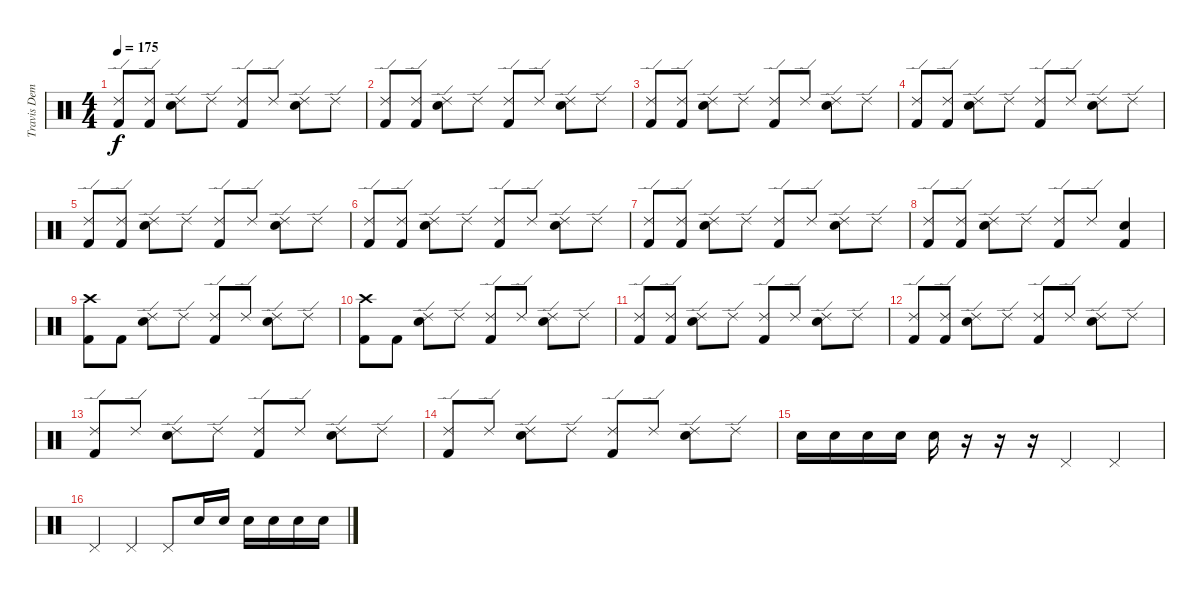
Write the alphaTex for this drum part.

\track ("Travis Dempsey" "Travis Dem") {instrument percussion}
\staff {score}
\articulation defaults
\ts (4 4)
\tempo 175
\clef neutral
\ks c
("Ride (edge) 2" "Kick (hit) 2").8{dy f} ("Ride (edge) 2" "Kick (hit) 2").8 ("Ride (edge) 2" "Electric Snare (hit)").8 "Ride (edge) 2".8 ("Ride (edge) 2" "Kick (hit) 2").8 "Ride (edge) 2".8 ("Ride (edge) 2" "Electric Snare (hit)").8 "Ride (edge) 2".8 |
("Ride (edge) 2" "Kick (hit) 2").8 ("Ride (edge) 2" "Kick (hit) 2").8 ("Ride (edge) 2" "Electric Snare (hit)").8 "Ride (edge) 2".8 ("Ride (edge) 2" "Kick (hit) 2").8 "Ride (edge) 2".8 ("Ride (edge) 2" "Electric Snare (hit)").8 "Ride (edge) 2".8 |
("Ride (edge) 2" "Kick (hit) 2").8 ("Ride (edge) 2" "Kick (hit) 2").8 ("Ride (edge) 2" "Electric Snare (hit)").8 "Ride (edge) 2".8 ("Ride (edge) 2" "Kick (hit) 2").8 "Ride (edge) 2".8 ("Ride (edge) 2" "Electric Snare (hit)").8 "Ride (edge) 2".8 |
("Ride (edge) 2" "Kick (hit) 2").8 ("Ride (edge) 2" "Kick (hit) 2").8 ("Ride (edge) 2" "Electric Snare (hit)").8 "Ride (edge) 2".8 ("Ride (edge) 2" "Kick (hit) 2").8 "Ride (edge) 2".8 ("Ride (edge) 2" "Electric Snare (hit)").8 "Ride (edge) 2".8 |
("Ride (edge) 2" "Kick (hit) 2").8 ("Ride (edge) 2" "Kick (hit) 2").8 ("Ride (edge) 2" "Electric Snare (hit)").8 "Ride (edge) 2".8 ("Ride (edge) 2" "Kick (hit) 2").8 "Ride (edge) 2".8 ("Ride (edge) 2" "Electric Snare (hit)").8 "Ride (edge) 2".8 |
("Ride (edge) 2" "Kick (hit) 2").8 ("Ride (edge) 2" "Kick (hit) 2").8 ("Ride (edge) 2" "Electric Snare (hit)").8 "Ride (edge) 2".8 ("Ride (edge) 2" "Kick (hit) 2").8 "Ride (edge) 2".8 ("Ride (edge) 2" "Electric Snare (hit)").8 "Ride (edge) 2".8 |
("Ride (edge) 2" "Kick (hit) 2").8 ("Ride (edge) 2" "Kick (hit) 2").8 ("Ride (edge) 2" "Electric Snare (hit)").8 "Ride (edge) 2".8 ("Ride (edge) 2" "Kick (hit) 2").8 "Ride (edge) 2".8 ("Ride (edge) 2" "Electric Snare (hit)").8 "Ride (edge) 2".8 |
("Ride (edge) 2" "Kick (hit) 2").8 ("Ride (edge) 2" "Kick (hit) 2").8 ("Ride (edge) 2" "Electric Snare (hit)").8 "Ride (edge) 2".8 ("Ride (edge) 2" "Kick (hit) 2").8 "Ride (edge) 2".8 ("Electric Snare (hit)" "Kick (hit) 2").4 |
("Crash high (hit)" "Kick (hit) 2").8 "Kick (hit) 2".8 ("Ride (edge) 2" "Electric Snare (hit)").8 "Ride (edge) 2".8 ("Ride (edge) 2" "Kick (hit) 2").8 "Ride (edge) 2".8 ("Ride (edge) 2" "Electric Snare (hit)").8 "Ride (edge) 2".8 |
("Crash high (hit)" "Kick (hit) 2").8 "Kick (hit) 2".8 ("Ride (edge) 2" "Electric Snare (hit)").8 "Ride (edge) 2".8 ("Ride (edge) 2" "Kick (hit) 2").8 "Ride (edge) 2".8 ("Ride (edge) 2" "Electric Snare (hit)").8 "Ride (edge) 2".8 |
("Ride (edge) 2" "Kick (hit) 2").8 ("Ride (edge) 2" "Kick (hit) 2").8 ("Ride (edge) 2" "Electric Snare (hit)").8 "Ride (edge) 2".8 ("Ride (edge) 2" "Kick (hit) 2").8 "Ride (edge) 2".8 ("Ride (edge) 2" "Electric Snare (hit)").8 "Ride (edge) 2".8 |
("Ride (edge) 2" "Kick (hit) 2").8 ("Ride (edge) 2" "Kick (hit) 2").8 ("Ride (edge) 2" "Electric Snare (hit)").8 "Ride (edge) 2".8 ("Ride (edge) 2" "Kick (hit) 2").8 "Ride (edge) 2".8 ("Ride (edge) 2" "Electric Snare (hit)").8 "Ride (edge) 2".8 |
("Ride (edge) 2" "Kick (hit) 2").8 "Ride (edge) 2".8 ("Ride (edge) 2" "Electric Snare (hit)").8 "Ride (edge) 2".8 ("Ride (edge) 2" "Kick (hit) 2").8 "Ride (edge) 2".8 ("Ride (edge) 2" "Electric Snare (hit)").8 "Ride (edge) 2".8 |
("Ride (edge) 2" "Kick (hit) 2").8 "Ride (edge) 2".8 ("Ride (edge) 2" "Electric Snare (hit)").8 "Ride (edge) 2".8 ("Ride (edge) 2" "Kick (hit) 2").8 "Ride (edge) 2".8 ("Ride (edge) 2" "Electric Snare (hit)").8 "Ride (edge) 2".8 |
"Electric Snare (hit)".16 "Electric Snare (hit)".16 "Electric Snare (hit)".16 "Electric Snare (hit)".16 "Electric Snare (hit)".16 r.16 r.16 r.16 "Pedal Hi-Hat (hit)".4 "Pedal Hi-Hat (hit)".4 |
"Pedal Hi-Hat (hit)".4 "Pedal Hi-Hat (hit)".4 "Pedal Hi-Hat (hit)".8 "Electric Snare (hit)".16 "Electric Snare (hit)".16 "Electric Snare (hit)".16 "Electric Snare (hit)".16 "Electric Snare (hit)".16 "Electric Snare (hit)".16
